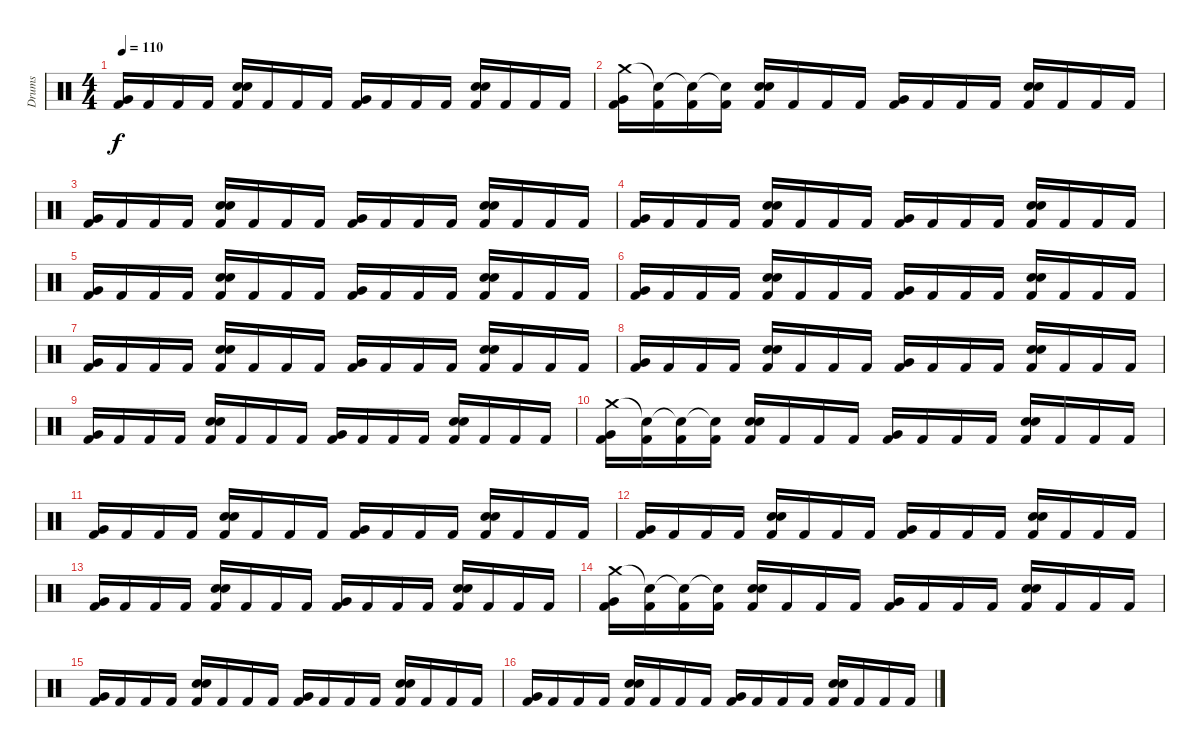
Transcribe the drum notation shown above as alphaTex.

\track ("Drums" "Drums") {instrument percussion}
\staff {score}
\articulation defaults
\ts (4 4)
\tempo 110
\clef neutral
\ks c
("Very Low Tom (hit)" "Kick (hit) 2").16{dy f} "Kick (hit) 2".16 "Kick (hit) 2".16 "Kick (hit) 2".16 ("Electric Snare (hit)" "Electric Snare (hit)" "Kick (hit) 2").16 "Kick (hit) 2".16 "Kick (hit) 2".16 "Kick (hit) 2".16 ("Very Low Tom (hit)" "Kick (hit) 2").16 "Kick (hit) 2".16 "Kick (hit) 2".16 "Kick (hit) 2".16 ("Electric Snare (hit)" "Electric Snare (hit)" "Kick (hit) 2").16 "Kick (hit) 2".16 "Kick (hit) 2".16 "Kick (hit) 2".16 |
("Crash medium (hit)" "Very Low Tom (hit)" "Kick (hit) 2").16 ("Snare (hit)"{t} "Kick (hit) 2").16 ("Snare (hit)"{t} "Kick (hit) 2").16 ("Snare (hit)"{t} "Kick (hit) 2").16 ("Electric Snare (hit)" "Electric Snare (hit)" "Kick (hit) 2").16 "Kick (hit) 2".16 "Kick (hit) 2".16 "Kick (hit) 2".16 ("Very Low Tom (hit)" "Kick (hit) 2").16 "Kick (hit) 2".16 "Kick (hit) 2".16 "Kick (hit) 2".16 ("Electric Snare (hit)" "Electric Snare (hit)" "Kick (hit) 2").16 "Kick (hit) 2".16 "Kick (hit) 2".16 "Kick (hit) 2".16 |
("Very Low Tom (hit)" "Kick (hit) 2").16 "Kick (hit) 2".16 "Kick (hit) 2".16 "Kick (hit) 2".16 ("Electric Snare (hit)" "Electric Snare (hit)" "Kick (hit) 2").16 "Kick (hit) 2".16 "Kick (hit) 2".16 "Kick (hit) 2".16 ("Very Low Tom (hit)" "Kick (hit) 2").16 "Kick (hit) 2".16 "Kick (hit) 2".16 "Kick (hit) 2".16 ("Electric Snare (hit)" "Electric Snare (hit)" "Kick (hit) 2").16 "Kick (hit) 2".16 "Kick (hit) 2".16 "Kick (hit) 2".16 |
("Very Low Tom (hit)" "Kick (hit) 2").16 "Kick (hit) 2".16 "Kick (hit) 2".16 "Kick (hit) 2".16 ("Electric Snare (hit)" "Electric Snare (hit)" "Kick (hit) 2").16 "Kick (hit) 2".16 "Kick (hit) 2".16 "Kick (hit) 2".16 ("Very Low Tom (hit)" "Kick (hit) 2").16 "Kick (hit) 2".16 "Kick (hit) 2".16 "Kick (hit) 2".16 ("Electric Snare (hit)" "Electric Snare (hit)" "Kick (hit) 2").16 "Kick (hit) 2".16 "Kick (hit) 2".16 "Kick (hit) 2".16 |
("Very Low Tom (hit)" "Kick (hit) 2").16 "Kick (hit) 2".16 "Kick (hit) 2".16 "Kick (hit) 2".16 ("Electric Snare (hit)" "Electric Snare (hit)" "Kick (hit) 2").16 "Kick (hit) 2".16 "Kick (hit) 2".16 "Kick (hit) 2".16 ("Very Low Tom (hit)" "Kick (hit) 2").16 "Kick (hit) 2".16 "Kick (hit) 2".16 "Kick (hit) 2".16 ("Electric Snare (hit)" "Electric Snare (hit)" "Kick (hit) 2").16 "Kick (hit) 2".16 "Kick (hit) 2".16 "Kick (hit) 2".16 |
("Very Low Tom (hit)" "Kick (hit) 2").16 "Kick (hit) 2".16 "Kick (hit) 2".16 "Kick (hit) 2".16 ("Electric Snare (hit)" "Electric Snare (hit)" "Kick (hit) 2").16 "Kick (hit) 2".16 "Kick (hit) 2".16 "Kick (hit) 2".16 ("Very Low Tom (hit)" "Kick (hit) 2").16 "Kick (hit) 2".16 "Kick (hit) 2".16 "Kick (hit) 2".16 ("Electric Snare (hit)" "Electric Snare (hit)" "Kick (hit) 2").16 "Kick (hit) 2".16 "Kick (hit) 2".16 "Kick (hit) 2".16 |
("Very Low Tom (hit)" "Kick (hit) 2").16 "Kick (hit) 2".16 "Kick (hit) 2".16 "Kick (hit) 2".16 ("Electric Snare (hit)" "Electric Snare (hit)" "Kick (hit) 2").16 "Kick (hit) 2".16 "Kick (hit) 2".16 "Kick (hit) 2".16 ("Very Low Tom (hit)" "Kick (hit) 2").16 "Kick (hit) 2".16 "Kick (hit) 2".16 "Kick (hit) 2".16 ("Electric Snare (hit)" "Electric Snare (hit)" "Kick (hit) 2").16 "Kick (hit) 2".16 "Kick (hit) 2".16 "Kick (hit) 2".16 |
("Very Low Tom (hit)" "Kick (hit) 2").16 "Kick (hit) 2".16 "Kick (hit) 2".16 "Kick (hit) 2".16 ("Electric Snare (hit)" "Electric Snare (hit)" "Kick (hit) 2").16 "Kick (hit) 2".16 "Kick (hit) 2".16 "Kick (hit) 2".16 ("Very Low Tom (hit)" "Kick (hit) 2").16 "Kick (hit) 2".16 "Kick (hit) 2".16 "Kick (hit) 2".16 ("Electric Snare (hit)" "Electric Snare (hit)" "Kick (hit) 2").16 "Kick (hit) 2".16 "Kick (hit) 2".16 "Kick (hit) 2".16 |
("Very Low Tom (hit)" "Kick (hit) 2").16 "Kick (hit) 2".16 "Kick (hit) 2".16 "Kick (hit) 2".16 ("Electric Snare (hit)" "Electric Snare (hit)" "Kick (hit) 2").16 "Kick (hit) 2".16 "Kick (hit) 2".16 "Kick (hit) 2".16 ("Very Low Tom (hit)" "Kick (hit) 2").16 "Kick (hit) 2".16 "Kick (hit) 2".16 "Kick (hit) 2".16 ("Electric Snare (hit)" "Electric Snare (hit)" "Kick (hit) 2").16 "Kick (hit) 2".16 "Kick (hit) 2".16 "Kick (hit) 2".16 |
("Crash medium (hit)" "Very Low Tom (hit)" "Kick (hit) 2").16 ("Snare (hit)"{t} "Kick (hit) 2").16 ("Snare (hit)"{t} "Kick (hit) 2").16 ("Snare (hit)"{t} "Kick (hit) 2").16 ("Electric Snare (hit)" "Electric Snare (hit)" "Kick (hit) 2").16 "Kick (hit) 2".16 "Kick (hit) 2".16 "Kick (hit) 2".16 ("Very Low Tom (hit)" "Kick (hit) 2").16 "Kick (hit) 2".16 "Kick (hit) 2".16 "Kick (hit) 2".16 ("Electric Snare (hit)" "Electric Snare (hit)" "Kick (hit) 2").16 "Kick (hit) 2".16 "Kick (hit) 2".16 "Kick (hit) 2".16 |
("Very Low Tom (hit)" "Kick (hit) 2").16 "Kick (hit) 2".16 "Kick (hit) 2".16 "Kick (hit) 2".16 ("Electric Snare (hit)" "Electric Snare (hit)" "Kick (hit) 2").16 "Kick (hit) 2".16 "Kick (hit) 2".16 "Kick (hit) 2".16 ("Very Low Tom (hit)" "Kick (hit) 2").16 "Kick (hit) 2".16 "Kick (hit) 2".16 "Kick (hit) 2".16 ("Electric Snare (hit)" "Electric Snare (hit)" "Kick (hit) 2").16 "Kick (hit) 2".16 "Kick (hit) 2".16 "Kick (hit) 2".16 |
("Very Low Tom (hit)" "Kick (hit) 2").16 "Kick (hit) 2".16 "Kick (hit) 2".16 "Kick (hit) 2".16 ("Electric Snare (hit)" "Electric Snare (hit)" "Kick (hit) 2").16 "Kick (hit) 2".16 "Kick (hit) 2".16 "Kick (hit) 2".16 ("Very Low Tom (hit)" "Kick (hit) 2").16 "Kick (hit) 2".16 "Kick (hit) 2".16 "Kick (hit) 2".16 ("Electric Snare (hit)" "Electric Snare (hit)" "Kick (hit) 2").16 "Kick (hit) 2".16 "Kick (hit) 2".16 "Kick (hit) 2".16 |
("Very Low Tom (hit)" "Kick (hit) 2").16 "Kick (hit) 2".16 "Kick (hit) 2".16 "Kick (hit) 2".16 ("Electric Snare (hit)" "Electric Snare (hit)" "Kick (hit) 2").16 "Kick (hit) 2".16 "Kick (hit) 2".16 "Kick (hit) 2".16 ("Very Low Tom (hit)" "Kick (hit) 2").16 "Kick (hit) 2".16 "Kick (hit) 2".16 "Kick (hit) 2".16 ("Electric Snare (hit)" "Electric Snare (hit)" "Kick (hit) 2").16 "Kick (hit) 2".16 "Kick (hit) 2".16 "Kick (hit) 2".16 |
("Crash medium (hit)" "Very Low Tom (hit)" "Kick (hit) 2").16 ("Snare (hit)"{t} "Kick (hit) 2").16 ("Snare (hit)"{t} "Kick (hit) 2").16 ("Snare (hit)"{t} "Kick (hit) 2").16 ("Electric Snare (hit)" "Electric Snare (hit)" "Kick (hit) 2").16 "Kick (hit) 2".16 "Kick (hit) 2".16 "Kick (hit) 2".16 ("Very Low Tom (hit)" "Kick (hit) 2").16 "Kick (hit) 2".16 "Kick (hit) 2".16 "Kick (hit) 2".16 ("Electric Snare (hit)" "Electric Snare (hit)" "Kick (hit) 2").16 "Kick (hit) 2".16 "Kick (hit) 2".16 "Kick (hit) 2".16 |
("Very Low Tom (hit)" "Kick (hit) 2").16 "Kick (hit) 2".16 "Kick (hit) 2".16 "Kick (hit) 2".16 ("Electric Snare (hit)" "Electric Snare (hit)" "Kick (hit) 2").16 "Kick (hit) 2".16 "Kick (hit) 2".16 "Kick (hit) 2".16 ("Very Low Tom (hit)" "Kick (hit) 2").16 "Kick (hit) 2".16 "Kick (hit) 2".16 "Kick (hit) 2".16 ("Electric Snare (hit)" "Electric Snare (hit)" "Kick (hit) 2").16 "Kick (hit) 2".16 "Kick (hit) 2".16 "Kick (hit) 2".16 |
("Very Low Tom (hit)" "Kick (hit) 2").16 "Kick (hit) 2".16 "Kick (hit) 2".16 "Kick (hit) 2".16 ("Electric Snare (hit)" "Electric Snare (hit)" "Kick (hit) 2").16 "Kick (hit) 2".16 "Kick (hit) 2".16 "Kick (hit) 2".16 ("Very Low Tom (hit)" "Kick (hit) 2").16 "Kick (hit) 2".16 "Kick (hit) 2".16 "Kick (hit) 2".16 ("Electric Snare (hit)" "Electric Snare (hit)" "Kick (hit) 2").16 "Kick (hit) 2".16 "Kick (hit) 2".16 "Kick (hit) 2".16
